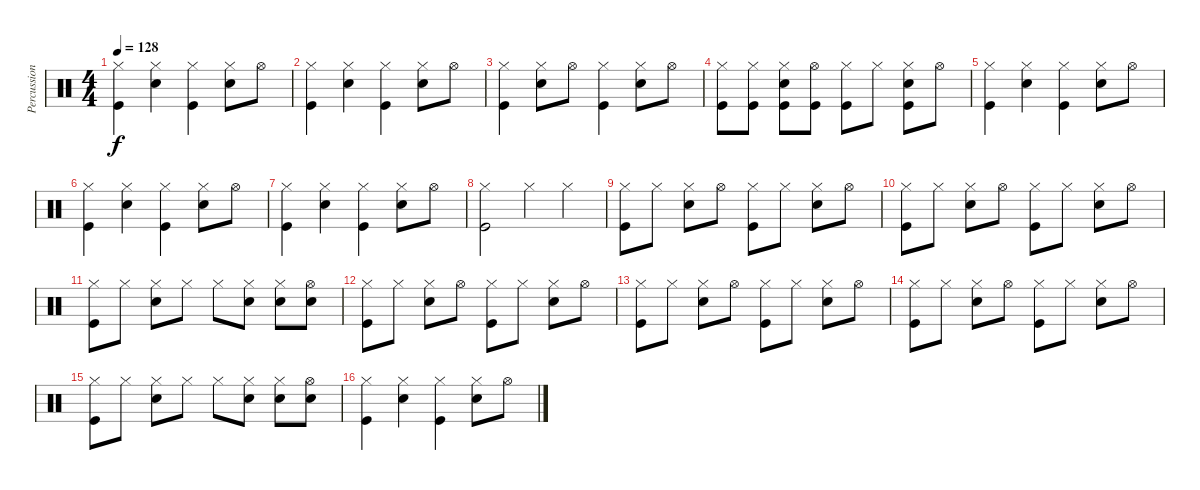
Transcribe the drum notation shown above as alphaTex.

\track ("Percussion" "Percussion") {instrument percussion}
\staff {score}
\articulation defaults
\ts (4 4)
\tempo 128
\clef neutral
\ks c
("Hi-Hat (closed)" "Kick (hit)").4{dy f} ("Hi-Hat (closed)" "Snare (hit) 2").4 ("Hi-Hat (closed)" "Kick (hit)").4 ("Hi-Hat (closed)" "Snare (hit) 2").8 "Hi-Hat (open)".8 |
("Hi-Hat (closed)" "Kick (hit)").4 ("Hi-Hat (closed)" "Snare (hit) 2").4 ("Hi-Hat (closed)" "Kick (hit)").4 ("Hi-Hat (closed)" "Snare (hit) 2").8 "Hi-Hat (open)".8 |
("Hi-Hat (closed)" "Kick (hit)").4 ("Hi-Hat (closed)" "Snare (hit) 2").8 "Hi-Hat (open)".8 ("Hi-Hat (closed)" "Kick (hit)").4 ("Hi-Hat (closed)" "Snare (hit) 2").8 "Hi-Hat (open)".8 |
("Hi-Hat (closed)" "Kick (hit)").8 ("Hi-Hat (closed)" "Kick (hit)").8 ("Hi-Hat (closed)" "Kick (hit)" "Snare (hit) 2").8 ("Hi-Hat (open)" "Kick (hit)").8 ("Hi-Hat (closed)" "Kick (hit)").8 "Hi-Hat (closed)".8 ("Hi-Hat (closed)" "Kick (hit)" "Snare (hit) 2").8 "Hi-Hat (open)".8 |
("Hi-Hat (closed)" "Kick (hit)").4 ("Hi-Hat (closed)" "Snare (hit) 2").4 ("Hi-Hat (closed)" "Kick (hit)").4 ("Hi-Hat (closed)" "Snare (hit) 2").8 "Hi-Hat (open)".8 |
("Hi-Hat (closed)" "Kick (hit)").4 ("Hi-Hat (closed)" "Snare (hit) 2").4 ("Hi-Hat (closed)" "Kick (hit)").4 ("Hi-Hat (closed)" "Snare (hit) 2").8 "Hi-Hat (open)".8 |
("Hi-Hat (closed)" "Kick (hit)").4 ("Hi-Hat (closed)" "Snare (hit) 2").4 ("Hi-Hat (closed)" "Kick (hit)").4 ("Hi-Hat (closed)" "Snare (hit) 2").8 "Hi-Hat (open)".8 |
("Hi-Hat (closed)" "Kick (hit)").2 "Hi-Hat (closed)".4 "Hi-Hat (closed)".4 |
("Hi-Hat (closed)" "Kick (hit)").8 "Hi-Hat (closed)".8 ("Hi-Hat (closed)" "Snare (hit) 2").8 "Hi-Hat (open)".8 ("Hi-Hat (closed)" "Kick (hit)").8 "Hi-Hat (closed)".8 ("Hi-Hat (closed)" "Snare (hit) 2").8 "Hi-Hat (open)".8 |
("Hi-Hat (closed)" "Kick (hit)").8 "Hi-Hat (closed)".8 ("Hi-Hat (closed)" "Snare (hit) 2").8 "Hi-Hat (open)".8 ("Hi-Hat (closed)" "Kick (hit)").8 "Hi-Hat (closed)".8 ("Hi-Hat (closed)" "Snare (hit) 2").8 "Hi-Hat (open)".8 |
("Hi-Hat (closed)" "Kick (hit)").8 "Hi-Hat (closed)".8 ("Hi-Hat (closed)" "Snare (hit) 2").8 "Hi-Hat (closed)".8 "Hi-Hat (closed)".8 ("Hi-Hat (closed)" "Snare (hit) 2").8 ("Hi-Hat (closed)" "Snare (hit) 2").8 ("Hi-Hat (open)" "Snare (hit) 2").8 |
("Hi-Hat (closed)" "Kick (hit)").8 "Hi-Hat (closed)".8 ("Hi-Hat (closed)" "Snare (hit) 2").8 "Hi-Hat (open)".8 ("Hi-Hat (closed)" "Kick (hit)").8 "Hi-Hat (closed)".8 ("Hi-Hat (closed)" "Snare (hit) 2").8 "Hi-Hat (open)".8 |
("Hi-Hat (closed)" "Kick (hit)").8 "Hi-Hat (closed)".8 ("Hi-Hat (closed)" "Snare (hit) 2").8 "Hi-Hat (open)".8 ("Hi-Hat (closed)" "Kick (hit)").8 "Hi-Hat (closed)".8 ("Hi-Hat (closed)" "Snare (hit) 2").8 "Hi-Hat (open)".8 |
("Hi-Hat (closed)" "Kick (hit)").8 "Hi-Hat (closed)".8 ("Hi-Hat (closed)" "Snare (hit) 2").8 "Hi-Hat (open)".8 ("Hi-Hat (closed)" "Kick (hit)").8 "Hi-Hat (closed)".8 ("Hi-Hat (closed)" "Snare (hit) 2").8 "Hi-Hat (open)".8 |
("Hi-Hat (closed)" "Kick (hit)").8 "Hi-Hat (closed)".8 ("Hi-Hat (closed)" "Snare (hit) 2").8 "Hi-Hat (closed)".8 "Hi-Hat (closed)".8 ("Hi-Hat (closed)" "Snare (hit) 2").8 ("Hi-Hat (closed)" "Snare (hit) 2").8 ("Hi-Hat (open)" "Snare (hit) 2").8 |
("Hi-Hat (closed)" "Kick (hit)").4 ("Hi-Hat (closed)" "Snare (hit) 2").4 ("Hi-Hat (closed)" "Kick (hit)").4 ("Hi-Hat (closed)" "Snare (hit) 2").8 "Hi-Hat (open)".8
